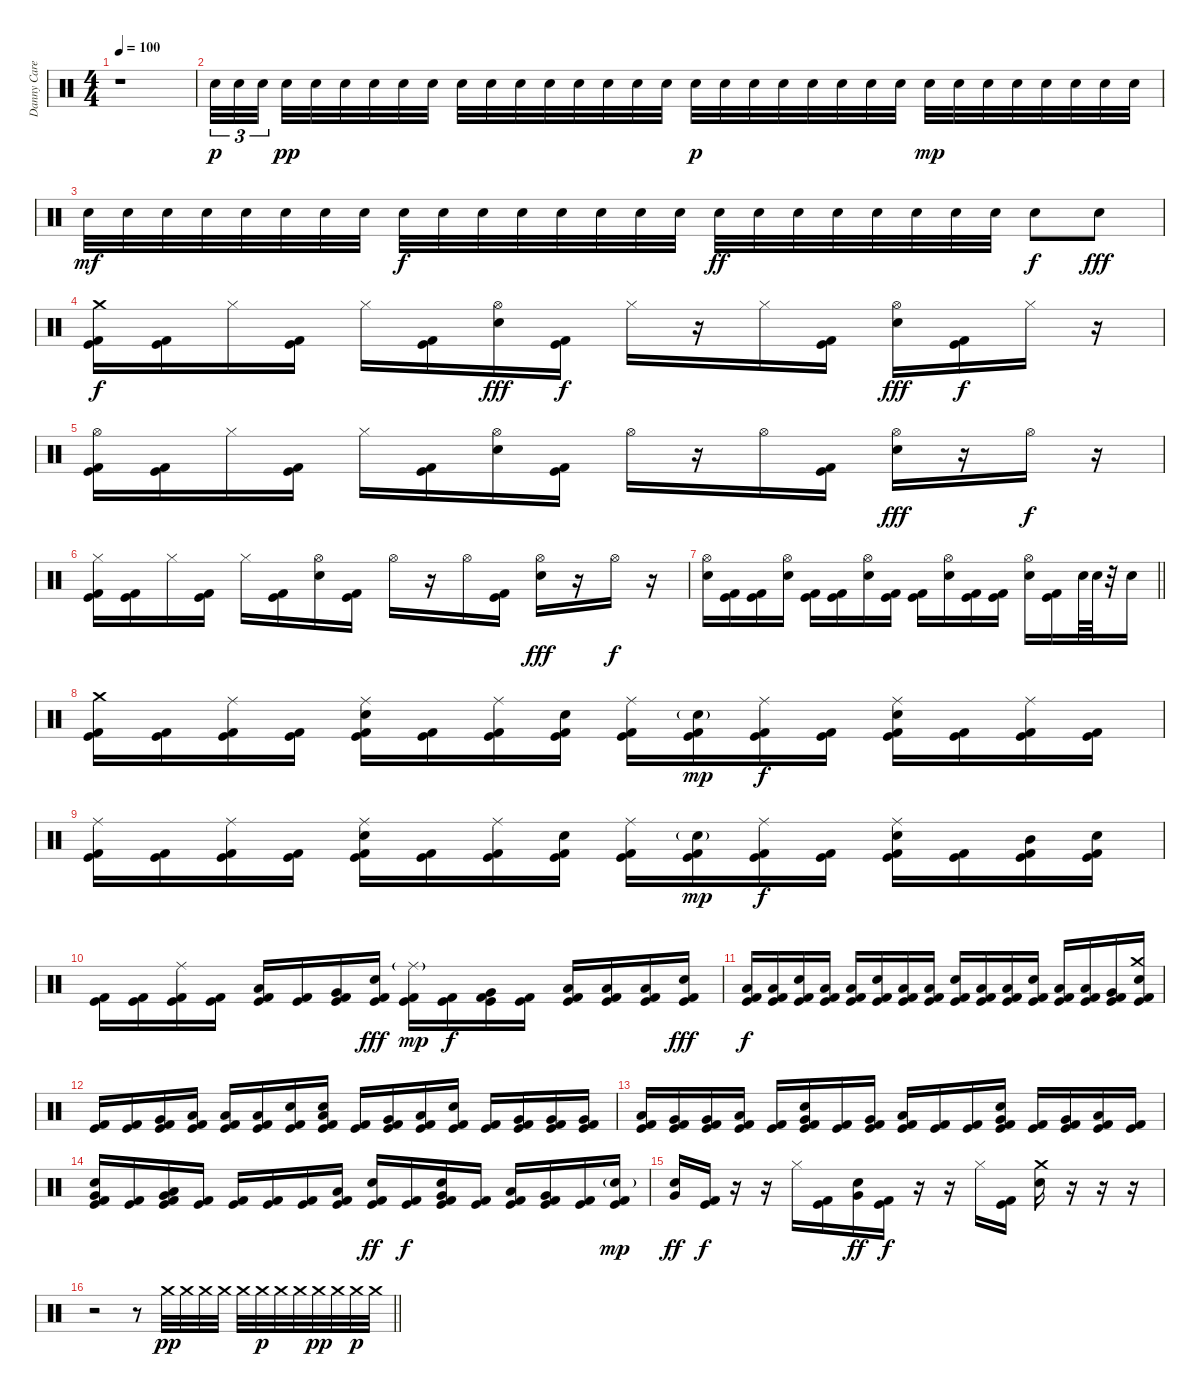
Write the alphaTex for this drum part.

\track ("Danny Carey" "Danny Care") {instrument percussion}
\staff {score}
\articulation defaults
\ts (4 4)
\tempo 100
\clef neutral
\ks c
r.1{dy f} |
"Electric Snare (hit)".32{tu (3 2) dy p} "Electric Snare (hit)".32{tu (3 2)} "Electric Snare (hit)".32{tu (3 2) beam splitsecondary} "Electric Snare (hit)".32{dy pp} "Electric Snare (hit)".32 "Electric Snare (hit)".32 "Electric Snare (hit)".32 "Electric Snare (hit)".32 "Electric Snare (hit)".32 "Electric Snare (hit)".32 "Electric Snare (hit)".32 "Electric Snare (hit)".32 "Electric Snare (hit)".32 "Electric Snare (hit)".32 "Electric Snare (hit)".32 "Electric Snare (hit)".32 "Electric Snare (hit)".32 "Electric Snare (hit)".32{dy p} "Electric Snare (hit)".32 "Electric Snare (hit)".32 "Electric Snare (hit)".32 "Electric Snare (hit)".32 "Electric Snare (hit)".32 "Electric Snare (hit)".32 "Electric Snare (hit)".32 "Electric Snare (hit)".32{dy mp} "Electric Snare (hit)".32 "Electric Snare (hit)".32 "Electric Snare (hit)".32 "Electric Snare (hit)".32 "Electric Snare (hit)".32 "Electric Snare (hit)".32 "Electric Snare (hit)".32 |
"Electric Snare (hit)".32{dy mf} "Electric Snare (hit)".32 "Electric Snare (hit)".32 "Electric Snare (hit)".32 "Electric Snare (hit)".32 "Electric Snare (hit)".32 "Electric Snare (hit)".32 "Electric Snare (hit)".32 "Electric Snare (hit)".32{dy f} "Electric Snare (hit)".32 "Electric Snare (hit)".32 "Electric Snare (hit)".32 "Electric Snare (hit)".32 "Electric Snare (hit)".32 "Electric Snare (hit)".32 "Electric Snare (hit)".32 "Electric Snare (hit)".32{dy ff} "Electric Snare (hit)".32 "Electric Snare (hit)".32 "Electric Snare (hit)".32 "Electric Snare (hit)".32 "Electric Snare (hit)".32 "Electric Snare (hit)".32 "Electric Snare (hit)".32 "Electric Snare (hit)".8{dy f} "Electric Snare (hit)".8{dy fff} |
("Crash medium (hit)" "Kick (hit)" "Kick (hit) 2").16{dy f} ("Kick (hit)" "Kick (hit) 2").16 "Hi-Hat (closed)".16 ("Kick (hit)" "Kick (hit) 2").16 "Hi-Hat (closed)".16 ("Kick (hit)" "Kick (hit) 2").16 ("Hi-Hat (open)" "Electric Snare (hit)").16{dy fff} ("Kick (hit)" "Kick (hit) 2").16{dy f} "Hi-Hat (closed)".16 r.16 "Hi-Hat (closed)".16 ("Kick (hit)" "Kick (hit) 2").16 ("Hi-Hat (open)" "Electric Snare (hit)").16{dy fff} ("Kick (hit)" "Kick (hit) 2").16{dy f} "Hi-Hat (closed)".16 r.16 |
("Hi-Hat (open)" "Kick (hit)" "Kick (hit) 2").16 ("Kick (hit)" "Kick (hit) 2").16 "Hi-Hat (closed)".16 ("Kick (hit)" "Kick (hit) 2").16 "Hi-Hat (closed)".16 ("Kick (hit)" "Kick (hit) 2").16 ("Hi-Hat (open)" "Electric Snare (hit)").16 ("Kick (hit)" "Kick (hit) 2").16 "Hi-Hat (open)".16 r.16 "Hi-Hat (open)".16 ("Kick (hit)" "Kick (hit) 2").16 ("Hi-Hat (open)" "Electric Snare (hit)").16{dy fff} r.16 "Hi-Hat (open)".16{dy f} r.16 |
("Hi-Hat (closed)" "Kick (hit)" "Kick (hit) 2").16 ("Kick (hit)" "Kick (hit) 2").16 "Hi-Hat (closed)".16 ("Kick (hit)" "Kick (hit) 2").16 "Hi-Hat (closed)".16 ("Kick (hit)" "Kick (hit) 2").16 ("Hi-Hat (open)" "Electric Snare (hit)").16 ("Kick (hit)" "Kick (hit) 2").16 "Hi-Hat (open)".16 r.16 "Hi-Hat (open)".16 ("Kick (hit)" "Kick (hit) 2").16 ("Hi-Hat (open)" "Electric Snare (hit)").16{dy fff} r.16 "Hi-Hat (open)".16{dy f} r.16 |
\barLineRight lightlight
("Hi-Hat (open)" "Electric Snare (hit)").16 ("Kick (hit)" "Kick (hit) 2").16 ("Kick (hit)" "Kick (hit) 2").16 ("Hi-Hat (open)" "Electric Snare (hit)").16 ("Kick (hit)" "Kick (hit) 2").16 ("Kick (hit)" "Kick (hit) 2").16 ("Hi-Hat (open)" "Electric Snare (hit)").16 ("Kick (hit)" "Kick (hit) 2").16 ("Kick (hit)" "Kick (hit) 2").16 ("Hi-Hat (open)" "Electric Snare (hit)").16 ("Kick (hit)" "Kick (hit) 2").16 ("Kick (hit)" "Kick (hit) 2").16 ("Hi-Hat (open)" "Electric Snare (hit)").16 ("Kick (hit)" "Kick (hit) 2").16 "Electric Snare (hit)".64 "Electric Snare (hit)".64 r.32 "Electric Snare (hit)".16 |
("Crash medium (hit)" "Kick (hit)" "Kick (hit) 2").16 ("Kick (hit)" "Kick (hit) 2").16 ("Ride (middle)" "Kick (hit)" "Kick (hit) 2").16 ("Kick (hit)" "Kick (hit) 2").16 ("Ride (middle)" "Electric Snare (hit)" "Kick (hit)" "Kick (hit) 2").16 ("Kick (hit)" "Kick (hit) 2").16 ("Ride (middle)" "Kick (hit)" "Kick (hit) 2").16 ("Electric Snare (hit)" "Kick (hit)" "Kick (hit) 2").16 ("Ride (middle)" "Kick (hit)" "Kick (hit) 2").16 ("Electric Snare (hit)"{g} "Kick (hit)" "Kick (hit) 2").16{dy mp} ("Ride (middle)" "Kick (hit)" "Kick (hit) 2").16{dy f} ("Kick (hit)" "Kick (hit) 2").16 ("Ride (middle)" "Electric Snare (hit)" "Kick (hit)" "Kick (hit) 2").16 ("Kick (hit)" "Kick (hit) 2").16 ("Ride (middle)" "Kick (hit)" "Kick (hit) 2").16 ("Kick (hit)" "Kick (hit) 2").16 |
("Ride (middle)" "Kick (hit)" "Kick (hit) 2").16 ("Kick (hit)" "Kick (hit) 2").16 ("Ride (middle)" "Kick (hit)" "Kick (hit) 2").16 ("Kick (hit)" "Kick (hit) 2").16 ("Ride (middle)" "Electric Snare (hit)" "Kick (hit)" "Kick (hit) 2").16 ("Kick (hit)" "Kick (hit) 2").16 ("Ride (middle)" "Kick (hit)" "Kick (hit) 2").16 ("Electric Snare (hit)" "Kick (hit)" "Kick (hit) 2").16 ("Ride (middle)" "Kick (hit)" "Kick (hit) 2").16 ("Electric Snare (hit)"{g} "Kick (hit)" "Kick (hit) 2").16{dy mp} ("Ride (middle)" "Kick (hit)" "Kick (hit) 2").16{dy f} ("Kick (hit)" "Kick (hit) 2").16 ("Ride (middle)" "Electric Snare (hit)" "Kick (hit)" "Kick (hit) 2").16 ("Kick (hit)" "Kick (hit) 2").16 ("Mid Tom (hit)" "Kick (hit)" "Kick (hit) 2").16 ("Electric Snare (hit)" "Kick (hit)" "Kick (hit) 2").16 |
("Kick (hit)" "Kick (hit) 2").16 ("Kick (hit)" "Kick (hit) 2").16 ("Ride (middle)" "Kick (hit)" "Kick (hit) 2").16 ("Kick (hit)" "Kick (hit) 2").16 ("Low Tom (hit)" "Kick (hit)" "Kick (hit) 2").16 ("Kick (hit)" "Kick (hit) 2").16 ("Very Low Tom (hit)" "Kick (hit)" "Kick (hit) 2").16 ("Electric Snare (hit)" "Kick (hit)" "Kick (hit) 2").16{dy fff} ("Ride (middle)"{g} "Kick (hit)" "Kick (hit) 2").16{dy mp} ("Kick (hit)" "Kick (hit) 2").16{dy f} ("Very Low Tom (hit)" "Kick (hit)" "Kick (hit) 2").16 ("Kick (hit)" "Kick (hit) 2").16 ("Low Floor Tom (hit)" "Kick (hit)" "Kick (hit) 2").16 ("Low Floor Tom (hit)" "Kick (hit)" "Kick (hit) 2").16 ("Low Floor Tom (hit)" "Kick (hit)" "Kick (hit) 2").16 ("Electric Snare (hit)" "Kick (hit)" "Kick (hit) 2").16{dy fff} |
("Low Floor Tom (hit)" "Kick (hit)" "Kick (hit) 2").16{dy f} ("Low Floor Tom (hit)" "Kick (hit)" "Kick (hit) 2").16 ("Electric Snare (hit)" "Kick (hit)" "Kick (hit) 2").16 ("Low Floor Tom (hit)" "Kick (hit)" "Kick (hit) 2").16 ("Low Floor Tom (hit)" "Kick (hit)" "Kick (hit) 2").16 ("Electric Snare (hit)" "Kick (hit)" "Kick (hit) 2").16 ("Low Floor Tom (hit)" "Kick (hit)" "Kick (hit) 2").16 ("Low Floor Tom (hit)" "Kick (hit)" "Kick (hit) 2").16 ("Electric Snare (hit)" "Kick (hit)" "Kick (hit) 2").16 ("Low Floor Tom (hit)" "Kick (hit)" "Kick (hit) 2").16 ("Low Floor Tom (hit)" "Kick (hit)" "Kick (hit) 2").16 ("Electric Snare (hit)" "Kick (hit)" "Kick (hit) 2").16 ("Low Floor Tom (hit)" "Kick (hit)" "Kick (hit) 2").16 ("Low Floor Tom (hit)" "Kick (hit)" "Kick (hit) 2").16 ("Very Low Tom (hit)" "Kick (hit)" "Kick (hit) 2").16 ("Crash medium (hit)" "Electric Snare (hit)" "Kick (hit)" "Kick (hit) 2").16 |
("Kick (hit)" "Kick (hit) 2").16 ("Kick (hit)" "Kick (hit) 2").16 ("Very Low Tom (hit)" "Kick (hit)" "Kick (hit) 2").16 ("Low Floor Tom (hit)" "Kick (hit)" "Kick (hit) 2").16 ("Low Tom (hit)" "Kick (hit)" "Kick (hit) 2").16 ("Low Floor Tom (hit)" "Kick (hit)" "Kick (hit) 2").16 ("Electric Snare (hit)" "Kick (hit)" "Kick (hit) 2").16 ("Low Floor Tom (hit)" "Electric Snare (hit)" "Kick (hit)" "Kick (hit) 2").16 ("Kick (hit)" "Kick (hit) 2").16 ("Very Low Tom (hit)" "Kick (hit)" "Kick (hit) 2").16 ("Low Floor Tom (hit)" "Kick (hit)" "Kick (hit) 2").16 ("Electric Snare (hit)" "Kick (hit)" "Kick (hit) 2").16 ("Kick (hit)" "Kick (hit) 2").16 ("Very Low Tom (hit)" "Kick (hit)" "Kick (hit) 2").16 ("Very Low Tom (hit)" "Kick (hit)" "Kick (hit) 2").16 ("Very Low Tom (hit)" "Kick (hit)" "Kick (hit) 2").16 |
("Low Tom (hit)" "Kick (hit)" "Kick (hit) 2").16 ("Very Low Tom (hit)" "Kick (hit)" "Kick (hit) 2").16 ("Very Low Tom (hit)" "Kick (hit)" "Kick (hit) 2").16 ("Low Floor Tom (hit)" "Kick (hit)" "Kick (hit) 2").16 ("Kick (hit)" "Kick (hit) 2").16 ("Very Low Tom (hit)" "Electric Snare (hit)" "Kick (hit)" "Kick (hit) 2").16 ("Kick (hit)" "Kick (hit) 2").16 ("Very Low Tom (hit)" "Kick (hit)" "Kick (hit) 2").16 ("Low Tom (hit)" "Kick (hit)" "Kick (hit) 2").16 ("Kick (hit)" "Kick (hit) 2").16 ("Kick (hit)" "Kick (hit) 2").16 ("Very Low Tom (hit)" "Electric Snare (hit)" "Kick (hit)" "Kick (hit) 2").16 ("Kick (hit)" "Kick (hit) 2").16 ("Very Low Tom (hit)" "Kick (hit)" "Kick (hit) 2").16 ("Low Tom (hit)" "Kick (hit)" "Kick (hit) 2").16 ("Kick (hit)" "Kick (hit) 2").16 |
("Very Low Tom (hit)" "Electric Snare (hit)" "Kick (hit)" "Kick (hit) 2").16 ("Kick (hit)" "Kick (hit) 2").16 ("Low Floor Tom (hit)" "Very Low Tom (hit)" "Kick (hit)" "Kick (hit) 2").16 ("Kick (hit)" "Kick (hit) 2").16 ("Kick (hit)" "Kick (hit) 2").16 ("Kick (hit)" "Kick (hit) 2").16 ("Kick (hit)" "Kick (hit) 2").16 ("Low Floor Tom (hit)" "Kick (hit)" "Kick (hit) 2").16 ("Electric Snare (hit)" "Kick (hit)" "Kick (hit) 2").16{dy ff} ("Kick (hit)" "Kick (hit) 2").16{dy f} ("Very Low Tom (hit)" "Electric Snare (hit)" "Kick (hit)" "Kick (hit) 2").16 ("Kick (hit)" "Kick (hit) 2").16 ("Low Floor Tom (hit)" "Kick (hit)" "Kick (hit) 2").16 ("Very Low Tom (hit)" "Kick (hit)" "Kick (hit) 2").16 ("Kick (hit)" "Kick (hit) 2").16 ("Electric Snare (hit)"{g} "Kick (hit)" "Kick (hit) 2").16{dy mp} |
("Very Low Tom (hit)" "Electric Snare (hit)").16{dy ff} ("Kick (hit)" "Kick (hit) 2").16{dy f} r.16 r.16 "Hi-Hat (closed)".16 ("Kick (hit)" "Kick (hit) 2").16 ("Very Low Tom (hit)" "Electric Snare (hit)").16{dy ff} ("Kick (hit)" "Kick (hit) 2").16{dy f} r.16 r.16 "Hi-Hat (closed)".16 ("Kick (hit)" "Kick (hit) 2").16 ("Crash medium (hit)" "Electric Snare (hit)").16 r.16 r.16 r.16 |
\barLineRight lightlight
r.2 r.8 "Crash medium (hit)".32{dy pp} "Crash medium (hit)".32 "Crash medium (hit)".32 "Crash medium (hit)".32 "Crash medium (hit)".32 "Crash medium (hit)".32{dy p} "Crash medium (hit)".32 "Crash medium (hit)".32 "Crash medium (hit)".32{dy pp} "Crash medium (hit)".32 "Crash medium (hit)".32{dy p} "Crash medium (hit)".32
